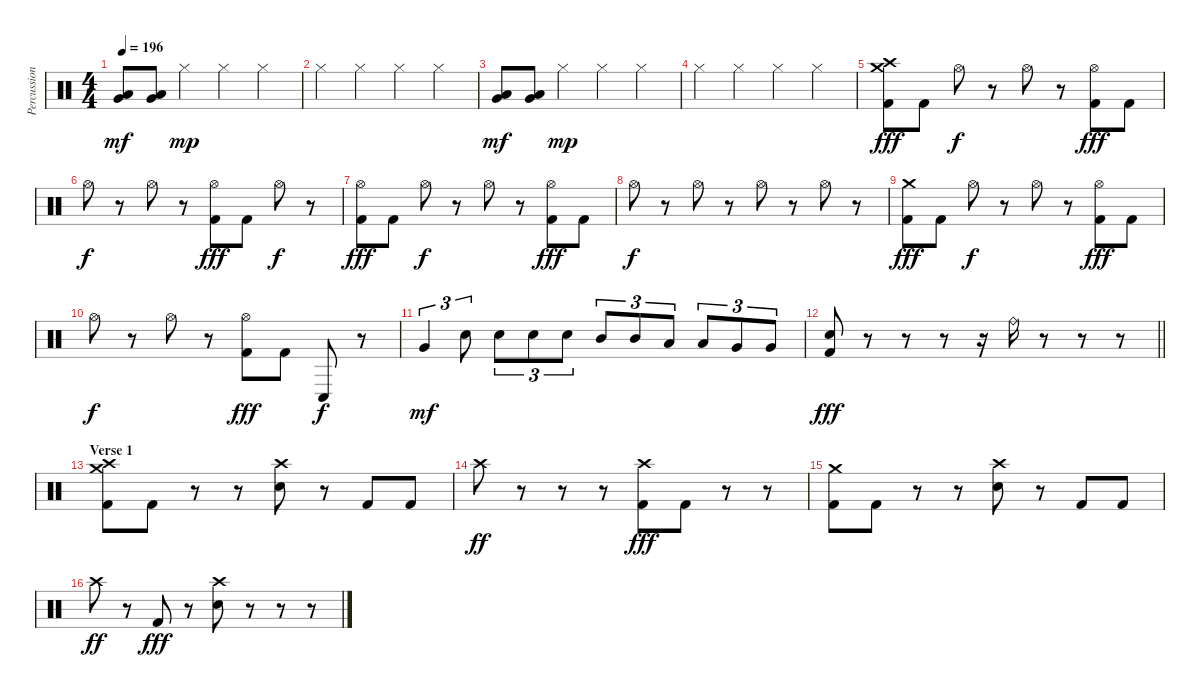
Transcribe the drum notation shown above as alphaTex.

\track ("Percussion" "Percussion") {instrument percussion}
\staff {score}
\articulation defaults
\ts (4 4)
\tempo 196
\clef neutral
\ks c
("Very Low Tom (hit)" "Low Floor Tom (hit)").8{dy mf} ("Very Low Tom (hit)" "Low Floor Tom (hit)").8 "Hi-Hat (closed)".4{dy mp} "Hi-Hat (closed)".4 "Hi-Hat (closed)".4 |
"Hi-Hat (closed)".4 "Hi-Hat (closed)".4 "Hi-Hat (closed)".4 "Hi-Hat (closed)".4 |
("Very Low Tom (hit)" "Low Floor Tom (hit)").8{dy mf} ("Very Low Tom (hit)" "Low Floor Tom (hit)").8 "Hi-Hat (closed)".4{dy mp} "Hi-Hat (closed)".4 "Hi-Hat (closed)".4 |
"Hi-Hat (closed)".4 "Hi-Hat (closed)".4 "Hi-Hat (closed)".4 "Hi-Hat (closed)".4 |
("Crash medium (hit)" "Crash high (hit)" "Kick (hit) 2").8{dy fff} "Kick (hit) 2".8 "Hi-Hat (open)".8{dy f} r.8 "Hi-Hat (open)".8 r.8 ("Hi-Hat (open)" "Kick (hit) 2").8{dy fff} "Kick (hit) 2".8 |
"Hi-Hat (open)".8{dy f} r.8 "Hi-Hat (open)".8 r.8 ("Hi-Hat (open)" "Kick (hit) 2").8{dy fff} "Kick (hit) 2".8 "Hi-Hat (open)".8{dy f} r.8 |
("Hi-Hat (open)" "Kick (hit) 2").8{dy fff} "Kick (hit) 2".8 "Hi-Hat (open)".8{dy f} r.8 "Hi-Hat (open)".8 r.8 ("Hi-Hat (open)" "Kick (hit) 2").8{dy fff} "Kick (hit) 2".8 |
"Hi-Hat (open)".8{dy f} r.8 "Hi-Hat (open)".8 r.8 "Hi-Hat (open)".8 r.8 "Hi-Hat (open)".8 r.8 |
("Crash medium (hit)" "Kick (hit) 2").8{dy fff} "Kick (hit) 2".8 "Hi-Hat (open)".8{dy f} r.8 "Hi-Hat (open)".8 r.8 ("Hi-Hat (open)" "Kick (hit) 2").8{dy fff} "Kick (hit) 2".8 |
"Hi-Hat (open)".8{dy f} r.8 "Hi-Hat (open)".8 r.8 ("Hi-Hat (open)" "Kick (hit) 2").8{dy fff} "Kick (hit) 2".8 "Conga low (hit)".8{dy f} r.8 |
"Very Low Tom (hit)".4{tu (3 2) dy mf} "Electric Snare (hit)".8{tu (3 2)} "Electric Snare (hit)".8{tu (3 2)} "Electric Snare (hit)".8{tu (3 2)} "Electric Snare (hit)".8{tu (3 2)} "Mid Tom (hit)".8{tu (3 2)} "Mid Tom (hit)".8{tu (3 2)} "Low Tom (hit)".8{tu (3 2)} "Low Tom (hit)".8{tu (3 2)} "Very Low Tom (hit)".8{tu (3 2)} "Very Low Tom (hit)".8{tu (3 2)} |
\barLineRight lightlight
("Electric Snare (hit)" "Kick (hit) 2").8{dy fff} r.8 r.8 r.8 r.16 "Ride (bell)".16 r.8 r.8 r.8 |
\section ("" "Verse 1")
("Crash medium (hit)" "Crash high (hit)" "Kick (hit) 2").8 "Kick (hit) 2".8 r.8 r.8 ("Crash high (hit)" "Electric Snare (hit)").8 r.8 "Kick (hit) 2".8 "Kick (hit) 2".8 |
"Crash high (hit)".8{dy ff} r.8 r.8 r.8 ("Crash high (hit)" "Kick (hit) 2").8{dy fff} "Kick (hit) 2".8 r.8 r.8 |
("Crash medium (hit)" "Kick (hit) 2").8 "Kick (hit) 2".8 r.8 r.8 ("Crash high (hit)" "Electric Snare (hit)").8 r.8 "Kick (hit) 2".8 "Kick (hit) 2".8 |
"Crash high (hit)".8{dy ff} r.8 "Kick (hit) 2".8{dy fff} r.8 ("Crash high (hit)" "Electric Snare (hit)").8 r.8 r.8 r.8
